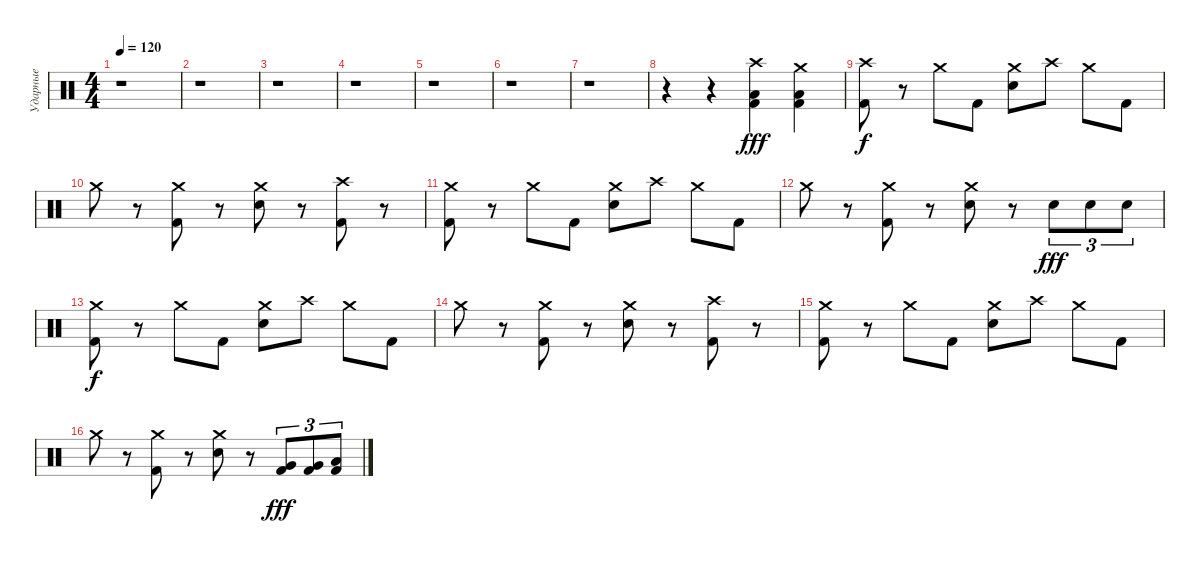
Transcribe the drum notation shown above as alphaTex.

\track ("Ударные" "Ударные") {instrument percussion}
\staff {score}
\articulation defaults
\ts (4 4)
\tempo 120
\clef neutral
\ks c
r.1{dy f} |
r.1 |
r.1 |
r.1 |
r.1 |
r.1 |
r.1 |
r.4 r.4 ("Crash high (hit)" "Low Floor Tom (hit)" "Kick (hit) 2").4{dy fff} ("Crash medium (hit)" "Low Floor Tom (hit)" "Kick (hit) 2").4 |
("Crash high (hit)" "Kick (hit) 2").8{dy f} r.8 "Crash medium (hit)".8 "Kick (hit) 2".8 ("Crash medium (hit)" "Electric Snare (hit)").8 "Crash high (hit)".8 "Crash medium (hit)".8 "Kick (hit) 2".8 |
"Crash medium (hit)".8 r.8 ("Crash medium (hit)" "Kick (hit) 2").8 r.8 ("Crash medium (hit)" "Electric Snare (hit)").8 r.8 ("Crash high (hit)" "Kick (hit) 2").8 r.8 |
("Crash medium (hit)" "Kick (hit) 2").8 r.8 "Crash medium (hit)".8 "Kick (hit) 2".8 ("Crash medium (hit)" "Electric Snare (hit)").8 "Crash high (hit)".8 "Crash medium (hit)".8 "Kick (hit) 2".8 |
"Crash medium (hit)".8 r.8 ("Crash medium (hit)" "Kick (hit) 2").8 r.8 ("Crash medium (hit)" "Electric Snare (hit)").8 r.8 "Electric Snare (hit)".8{tu (3 2) dy fff} "Electric Snare (hit)".8{tu (3 2)} "Electric Snare (hit)".8{tu (3 2)} |
("Crash medium (hit)" "Kick (hit) 2").8{dy f} r.8 "Crash medium (hit)".8 "Kick (hit) 2".8 ("Crash medium (hit)" "Electric Snare (hit)").8 "Crash high (hit)".8 "Crash medium (hit)".8 "Kick (hit) 2".8 |
"Crash medium (hit)".8 r.8 ("Crash medium (hit)" "Kick (hit) 2").8 r.8 ("Crash medium (hit)" "Electric Snare (hit)").8 r.8 ("Crash high (hit)" "Kick (hit) 2").8 r.8 |
("Crash medium (hit)" "Kick (hit) 2").8 r.8 "Crash medium (hit)".8 "Kick (hit) 2".8 ("Crash medium (hit)" "Electric Snare (hit)").8 "Crash high (hit)".8 "Crash medium (hit)".8 "Kick (hit) 2".8 |
"Crash medium (hit)".8 r.8 ("Crash medium (hit)" "Kick (hit) 2").8 r.8 ("Crash medium (hit)" "Electric Snare (hit)").8 r.8 ("Very Low Tom (hit)" "Kick (hit) 2").8{tu (3 2) dy fff} ("Very Low Tom (hit)" "Kick (hit) 2").8{tu (3 2)} ("Low Floor Tom (hit)" "Kick (hit) 2").8{tu (3 2)}
